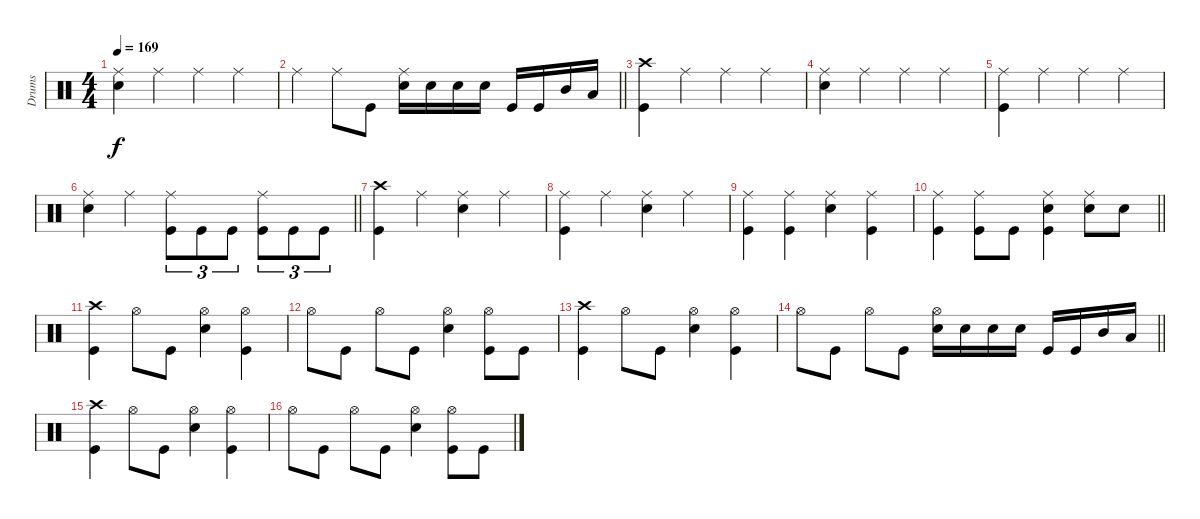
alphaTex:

\track ("Drums" "Drums") {instrument percussion}
\staff
\articulation defaults
\ts (4 4)
\tempo 169
\clef neutral
\ks c
("Ride (middle)" "Electric Snare (hit)").4{dy f} "Ride (middle)".4 "Ride (middle)".4 "Ride (middle)".4 |
\barLineRight lightlight "Ride (middle)".4 "Ride (middle)".8 "Kick (hit)".8
("Ride (middle)" "Electric Snare (hit)").16 "Electric Snare (hit)".16 "Electric Snare (hit)".16 "Electric Snare (hit)".16 "Kick (hit)".16 "Kick (hit)".16 "Mid Tom (hit)".16 "Low Tom (hit)".16 |
("Crash high (hit)" "Kick (hit)").4 "Ride (middle)".4 "Ride (middle)".4 "Ride (middle)".4 |
("Ride (middle)" "Electric Snare (hit)").4 "Ride (middle)".4 "Ride (middle)".4 "Ride (middle)".4 |
("Ride (middle)" "Kick (hit)").4 "Ride (middle)".4 "Ride (middle)".4 "Ride (middle)".4 |
\barLineRight lightlight
("Ride (middle)" "Electric Snare (hit)").4 "Ride (middle)".4 ("Ride (middle)" "Kick (hit)").8{tu (3 2)} "Kick (hit)".8{tu (3 2)} "Kick (hit)".8{tu (3 2)} ("Ride (middle)" "Kick (hit)").8{tu (3 2)} "Kick (hit)".8{tu (3 2)} "Kick (hit)".8{tu (3 2)} |
("Crash high (hit)" "Kick (hit)").4 "Ride (middle)".4 ("Ride (middle)" "Electric Snare (hit)").4 "Ride (middle)".4 |
("Ride (middle)" "Kick (hit)").4 "Ride (middle)".4 ("Ride (middle)" "Electric Snare (hit)").4 "Ride (middle)".4 |
("Ride (middle)" "Kick (hit)").4 ("Ride (middle)" "Kick (hit)").4 ("Ride (middle)" "Electric Snare (hit)").4 ("Ride (middle)" "Kick (hit)").4 |
\barLineRight lightlight
("Ride (middle)" "Kick (hit)").4 ("Ride (middle)" "Kick (hit)").8 "Kick (hit)".8 ("Ride (middle)" "Electric Snare (hit)" "Kick (hit)").4 ("Ride (middle)" "Electric Snare (hit)").8 "Electric Snare (hit)".8 |
\section ("" "")
("Crash high (hit)" "Kick (hit)").4 "Hi-Hat (open)".8 "Kick (hit)".8 ("Hi-Hat (open)" "Electric Snare (hit)").4 ("Hi-Hat (open)" "Kick (hit)").4 |
"Hi-Hat (open)".8 "Kick (hit)".8 "Hi-Hat (open)".8 "Kick (hit)".8 ("Hi-Hat (open)" "Electric Snare (hit)").4 ("Hi-Hat (open)" "Kick (hit)").8 "Kick (hit)".8 |
("Crash high (hit)" "Kick (hit)").4 "Hi-Hat (open)".8 "Kick (hit)".8 ("Hi-Hat (open)" "Electric Snare (hit)").4 ("Hi-Hat (open)" "Kick (hit)").4 |
\barLineRight lightlight "Hi-Hat (open)".8 "Kick (hit)".8 "Hi-Hat (open)".8 "Kick (hit)".8
("Hi-Hat (open)" "Electric Snare (hit)").16 "Electric Snare (hit)".16 "Electric Snare (hit)".16 "Electric Snare (hit)".16 "Kick (hit)".16 "Kick (hit)".16 "Mid Tom (hit)".16 "Low Tom (hit)".16 |
("Crash high (hit)" "Kick (hit)").4 "Hi-Hat (open)".8 "Kick (hit)".8 ("Hi-Hat (open)" "Electric Snare (hit)").4 ("Hi-Hat (open)" "Kick (hit)").4 |
"Hi-Hat (open)".8 "Kick (hit)".8 "Hi-Hat (open)".8 "Kick (hit)".8 ("Hi-Hat (open)" "Electric Snare (hit)").4 ("Hi-Hat (open)" "Kick (hit)").8 "Kick (hit)".8
